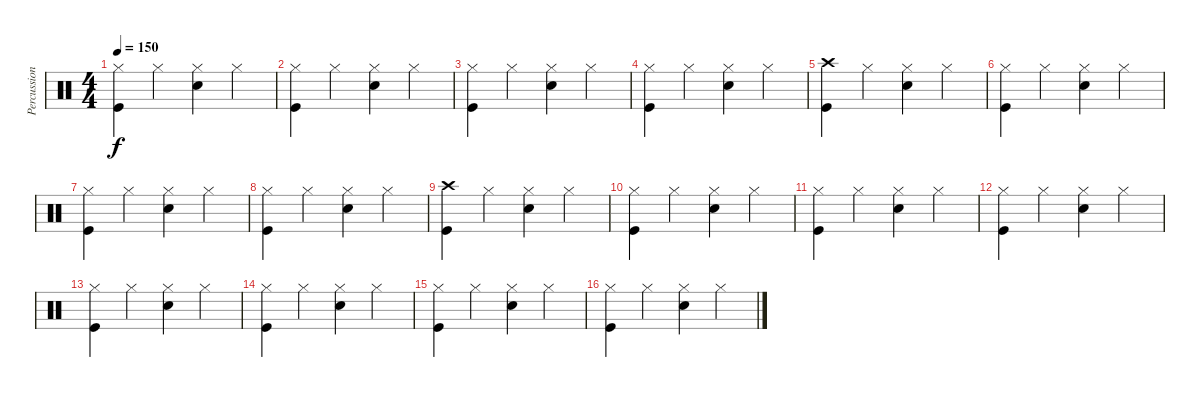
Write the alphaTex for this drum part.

\track ("Percussion" "Percussion") {instrument percussion}
\staff {score}
\articulation defaults
\ts (4 4)
\tempo 150
\clef neutral
\ks c
("Hi-Hat (closed)" "Kick (hit)").4{dy f} "Hi-Hat (closed)".4 ("Hi-Hat (closed)" "Snare (hit) 2").4 "Hi-Hat (closed)".4 |
("Hi-Hat (closed)" "Kick (hit)").4 "Hi-Hat (closed)".4 ("Hi-Hat (closed)" "Snare (hit) 2").4 "Hi-Hat (closed)".4 |
("Hi-Hat (closed)" "Kick (hit)").4 "Hi-Hat (closed)".4 ("Hi-Hat (closed)" "Snare (hit) 2").4 "Hi-Hat (closed)".4 |
("Hi-Hat (closed)" "Kick (hit)").4 "Hi-Hat (closed)".4 ("Hi-Hat (closed)" "Snare (hit) 2").4 "Hi-Hat (closed)".4 |
("Crash high (hit)" "Kick (hit)").4 "Hi-Hat (closed)".4 ("Hi-Hat (closed)" "Snare (hit) 2").4 "Hi-Hat (closed)".4 |
("Hi-Hat (closed)" "Kick (hit)").4 "Hi-Hat (closed)".4 ("Hi-Hat (closed)" "Snare (hit) 2").4 "Hi-Hat (closed)".4 |
("Hi-Hat (closed)" "Kick (hit)").4 "Hi-Hat (closed)".4 ("Hi-Hat (closed)" "Snare (hit) 2").4 "Hi-Hat (closed)".4 |
("Hi-Hat (closed)" "Kick (hit)").4 "Hi-Hat (closed)".4 ("Hi-Hat (closed)" "Snare (hit) 2").4 "Hi-Hat (closed)".4 |
("Crash high (hit)" "Kick (hit)").4 "Hi-Hat (closed)".4 ("Hi-Hat (closed)" "Snare (hit) 2").4 "Hi-Hat (closed)".4 |
("Hi-Hat (closed)" "Kick (hit)").4 "Hi-Hat (closed)".4 ("Hi-Hat (closed)" "Snare (hit) 2").4 "Hi-Hat (closed)".4 |
("Hi-Hat (closed)" "Kick (hit)").4 "Hi-Hat (closed)".4 ("Hi-Hat (closed)" "Snare (hit) 2").4 "Hi-Hat (closed)".4 |
("Hi-Hat (closed)" "Kick (hit)").4 "Hi-Hat (closed)".4 ("Hi-Hat (closed)" "Snare (hit) 2").4 "Hi-Hat (closed)".4 |
("Hi-Hat (closed)" "Kick (hit)").4 "Hi-Hat (closed)".4 ("Hi-Hat (closed)" "Snare (hit) 2").4 "Hi-Hat (closed)".4 |
("Hi-Hat (closed)" "Kick (hit)").4 "Hi-Hat (closed)".4 ("Hi-Hat (closed)" "Snare (hit) 2").4 "Hi-Hat (closed)".4 |
("Hi-Hat (closed)" "Kick (hit)").4 "Hi-Hat (closed)".4 ("Hi-Hat (closed)" "Snare (hit) 2").4 "Hi-Hat (closed)".4 |
("Hi-Hat (closed)" "Kick (hit)").4 "Hi-Hat (closed)".4 ("Hi-Hat (closed)" "Snare (hit) 2").4 "Hi-Hat (closed)".4
